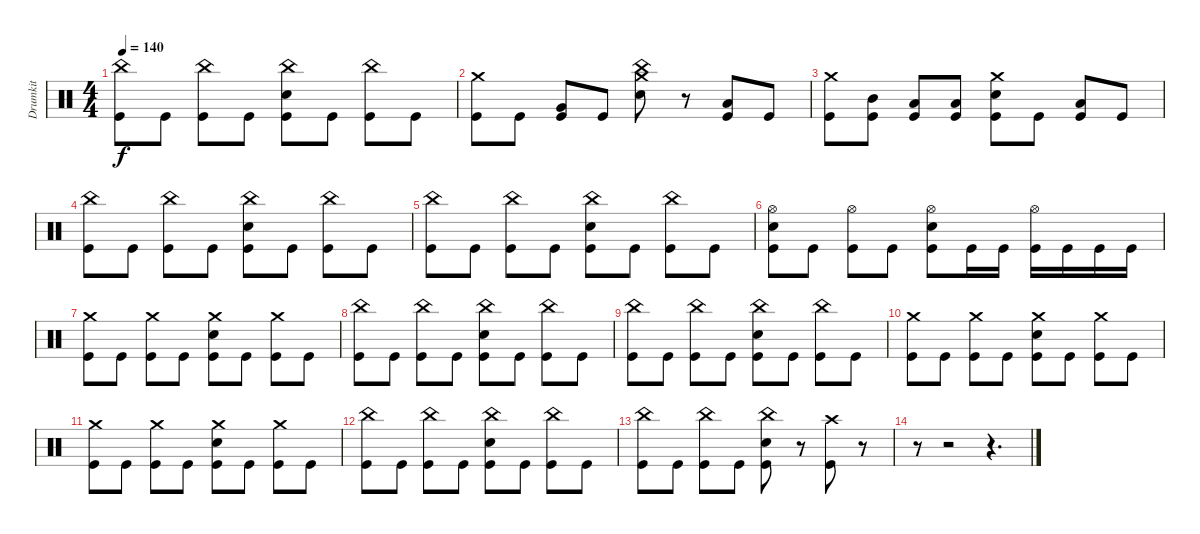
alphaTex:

\track ("Drumkit" "Drumkit") {instrument percussion}
\staff {score}
\articulation defaults
\ts (4 4)
\tempo 140
\clef neutral
\ks c
("China (hit)" "Kick (hit)").8{dy f} "Kick (hit)".8 ("China (hit)" "Kick (hit)").8 "Kick (hit)".8 ("China (hit)" "Snare (hit) 2" "Kick (hit)").8 "Kick (hit)".8 ("China (hit)" "Kick (hit)").8 "Kick (hit)".8 |
("Crash medium (hit)" "Kick (hit)").8 "Kick (hit)".8 ("Very Low Tom (hit)" "Kick (hit)").8 "Kick (hit)".8 ("Crash medium (hit)" "China (hit)" "Snare (hit) 2").8 r.8 ("Low Tom (hit)" "Kick (hit)").8 "Kick (hit)".8 |
("Crash medium (hit)" "Kick (hit)").8 ("Mid Tom (hit)" "Kick (hit)").8 ("Low Tom (hit)" "Kick (hit)").8 ("Low Tom (hit)" "Kick (hit)").8 ("Crash medium (hit)" "Snare (hit) 2" "Kick (hit)").8 "Kick (hit)".8 ("Low Floor Tom (hit)" "Kick (hit)").8 "Kick (hit)".8 |
("China (hit)" "Kick (hit)").8 "Kick (hit)".8 ("China (hit)" "Kick (hit)").8 "Kick (hit)".8 ("China (hit)" "Snare (hit) 2" "Kick (hit)").8 "Kick (hit)".8 ("China (hit)" "Kick (hit)").8 "Kick (hit)".8 |
("China (hit)" "Kick (hit)").8 "Kick (hit)".8 ("China (hit)" "Kick (hit)").8 "Kick (hit)".8 ("China (hit)" "Snare (hit) 2" "Kick (hit)").8 "Kick (hit)".8 ("China (hit)" "Kick (hit)").8 "Kick (hit)".8 |
("Hi-Hat (open)" "Snare (hit) 2" "Kick (hit)").8 "Kick (hit)".8 ("Hi-Hat (open)" "Kick (hit)").8 "Kick (hit)".8 ("Hi-Hat (open)" "Snare (hit) 2" "Kick (hit)").8 "Kick (hit)".16 "Kick (hit)".16 ("Hi-Hat (open)" "Kick (hit)").16 "Kick (hit)".16 "Kick (hit)".16 "Kick (hit)".16 |
("Crash medium (hit)" "Kick (hit)").8 "Kick (hit)".8 ("Crash medium (hit)" "Kick (hit)").8 "Kick (hit)".8 ("Crash medium (hit)" "Snare (hit) 2" "Kick (hit)").8 "Kick (hit)".8 ("Crash medium (hit)" "Kick (hit)").8 "Kick (hit)".8 |
("China (hit)" "Kick (hit)").8 "Kick (hit)".8 ("China (hit)" "Kick (hit)").8 "Kick (hit)".8 ("China (hit)" "Snare (hit) 2" "Kick (hit)").8 "Kick (hit)".8 ("China (hit)" "Kick (hit)").8 "Kick (hit)".8 |
("China (hit)" "Kick (hit)").8 "Kick (hit)".8 ("China (hit)" "Kick (hit)").8 "Kick (hit)".8 ("China (hit)" "Snare (hit) 2" "Kick (hit)").8 "Kick (hit)".8 ("China (hit)" "Kick (hit)").8 "Kick (hit)".8 |
("Crash medium (hit)" "Kick (hit)").8 "Kick (hit)".8 ("Crash medium (hit)" "Kick (hit)").8 "Kick (hit)".8 ("Crash medium (hit)" "Snare (hit) 2" "Kick (hit)").8 "Kick (hit)".8 ("Crash medium (hit)" "Kick (hit)").8 "Kick (hit)".8 |
("Crash medium (hit)" "Kick (hit)").8 "Kick (hit)".8 ("Crash medium (hit)" "Kick (hit)").8 "Kick (hit)".8 ("Crash medium (hit)" "Snare (hit) 2" "Kick (hit)").8 "Kick (hit)".8 ("Crash medium (hit)" "Kick (hit)").8 "Kick (hit)".8 |
("China (hit)" "Kick (hit)").8 "Kick (hit)".8 ("China (hit)" "Kick (hit)").8 "Kick (hit)".8 ("China (hit)" "Snare (hit) 2" "Kick (hit)").8 "Kick (hit)".8 ("China (hit)" "Kick (hit)").8 "Kick (hit)".8 |
("China (hit)" "Kick (hit)").8 "Kick (hit)".8 ("China (hit)" "Kick (hit)").8 "Kick (hit)".8 ("China (hit)" "Snare (hit) 2" "Kick (hit)").8 r.8 ("Crash high (hit)" "Kick (hit)").8 r.8 |
r.8 r.2 r.4{d}
